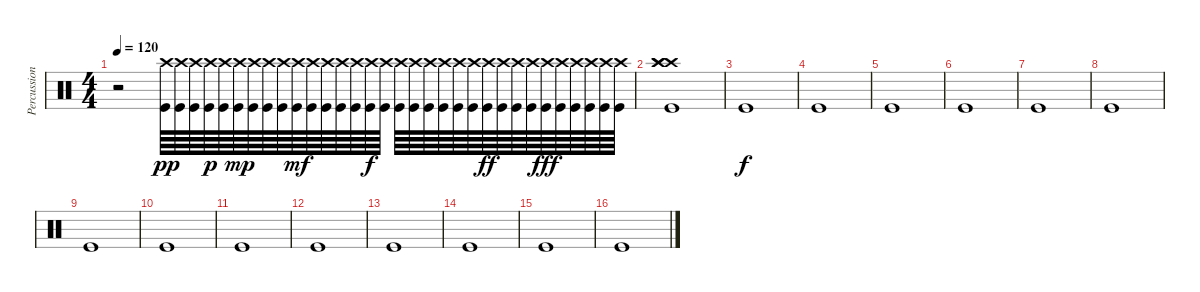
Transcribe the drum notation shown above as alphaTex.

\track ("Percussion" "Percussion") {instrument percussion}
\staff {score}
\articulation defaults
\ts (4 4)
\tempo 120
\clef neutral
\ks c
r.2{dy pp} ("Crash high (hit)" "Kick (hit)").64 ("Crash high (hit)" "Kick (hit)").64 ("Crash high (hit)" "Kick (hit)").64 ("Crash high (hit)" "Kick (hit)").64{dy p} ("Crash high (hit)" "Kick (hit)").64 ("Crash high (hit)" "Kick (hit)").64{dy mp} ("Crash high (hit)" "Kick (hit)").64 ("Crash high (hit)" "Kick (hit)").64 ("Crash high (hit)" "Kick (hit)").64 ("Crash high (hit)" "Kick (hit)").64{dy mf} ("Crash high (hit)" "Kick (hit)").64 ("Crash high (hit)" "Kick (hit)").64 ("Crash high (hit)" "Kick (hit)").64 ("Crash high (hit)" "Kick (hit)").64 ("Crash high (hit)" "Kick (hit)").64{dy f} ("Crash high (hit)" "Kick (hit)").64 ("Crash high (hit)" "Kick (hit)").64 ("Crash high (hit)" "Kick (hit)").64 ("Crash high (hit)" "Kick (hit)").64 ("Crash high (hit)" "Kick (hit)").64 ("Crash high (hit)" "Kick (hit)").64 ("Crash high (hit)" "Kick (hit)").64 ("Crash high (hit)" "Kick (hit)").64{dy ff} ("Crash high (hit)" "Kick (hit)").64 ("Crash high (hit)" "Kick (hit)").64 ("Crash high (hit)" "Kick (hit)").64 ("Crash high (hit)" "Kick (hit)").64{dy fff} ("Crash high (hit)" "Kick (hit)").64 ("Crash high (hit)" "Kick (hit)").64 ("Crash high (hit)" "Kick (hit)").64 ("Crash high (hit)" "Kick (hit)").64 ("Crash high (hit)" "Kick (hit)").64 |
("Crash high (hit)" "Crash high (hit)" "Crash high (hit)" "Kick (hit)").1 |
"Kick (hit)".1{dy f} |
"Kick (hit)".1 |
"Kick (hit)".1 |
"Kick (hit)".1 |
"Kick (hit)".1 |
"Kick (hit)".1 |
"Kick (hit)".1 |
"Kick (hit)".1 |
"Kick (hit)".1 |
"Kick (hit)".1 |
"Kick (hit)".1 |
"Kick (hit)".1 |
"Kick (hit)".1 |
"Kick (hit)".1
